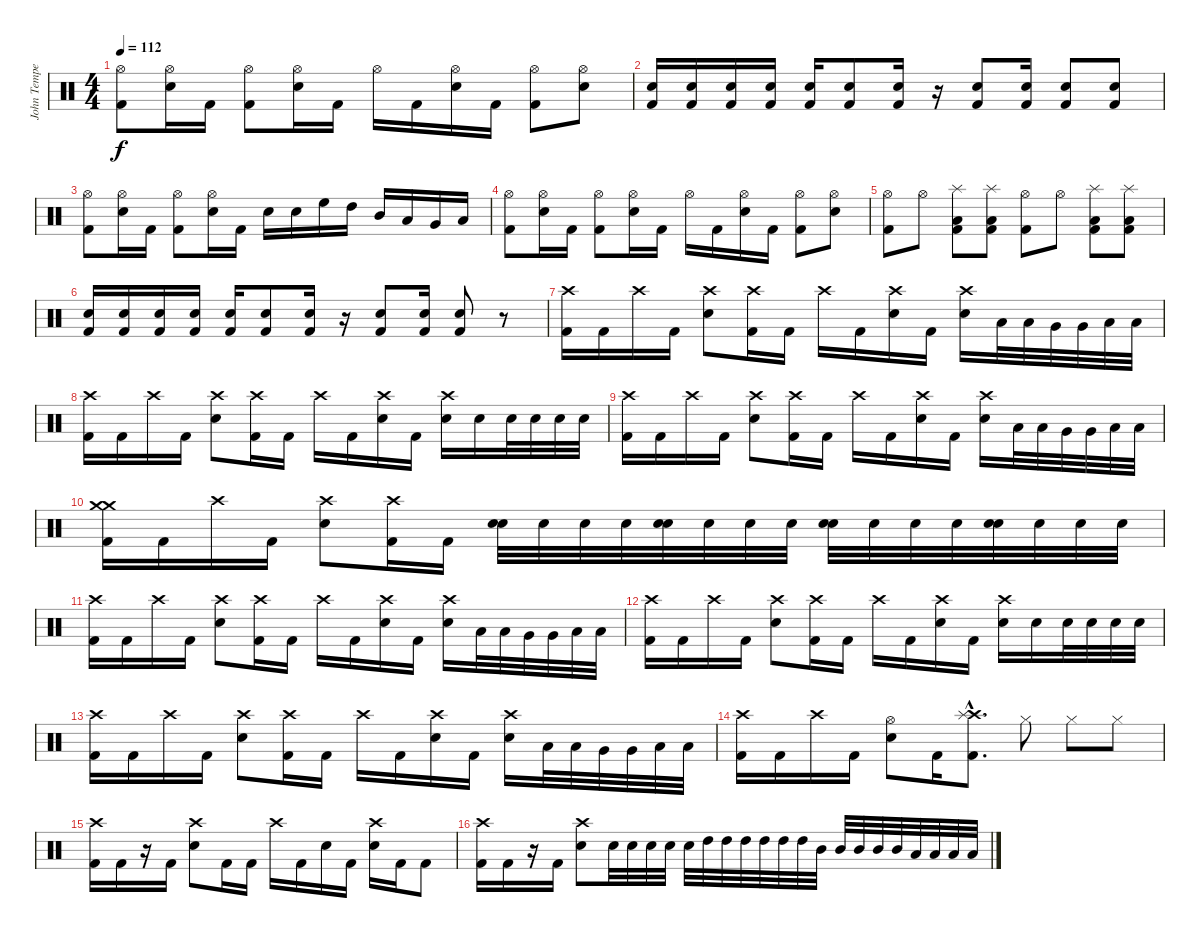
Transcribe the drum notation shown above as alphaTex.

\track ("John Tempesta" "John Tempe") {instrument percussion}
\staff {score}
\articulation defaults
\ts (4 4)
\tempo 112
\clef neutral
\ks c
("Hi-Hat (open)" "Kick (hit) 2").8{dy f} ("Hi-Hat (open)" "Electric Snare (hit)").16 "Kick (hit) 2".16 ("Hi-Hat (open)" "Kick (hit) 2").8 ("Hi-Hat (open)" "Electric Snare (hit)").16 "Kick (hit) 2".16 "Hi-Hat (open)".16 "Kick (hit) 2".16 ("Hi-Hat (open)" "Electric Snare (hit)").16 "Kick (hit) 2".16 ("Hi-Hat (open)" "Kick (hit) 2").8 ("Hi-Hat (open)" "Electric Snare (hit)").8 |
("Electric Snare (hit)" "Kick (hit) 2").16 ("Electric Snare (hit)" "Kick (hit) 2").16 ("Electric Snare (hit)" "Kick (hit) 2").16 ("Electric Snare (hit)" "Kick (hit) 2").16 ("Electric Snare (hit)" "Kick (hit) 2").16 ("Electric Snare (hit)" "Kick (hit) 2").8 ("Electric Snare (hit)" "Kick (hit) 2").16 r.16 ("Electric Snare (hit)" "Kick (hit) 2").8 ("Electric Snare (hit)" "Kick (hit) 2").16 ("Electric Snare (hit)" "Kick (hit) 2").8 ("Electric Snare (hit)" "Kick (hit) 2").8 |
("Hi-Hat (open)" "Kick (hit) 2").8 ("Hi-Hat (open)" "Electric Snare (hit)").16 "Kick (hit) 2".16 ("Hi-Hat (open)" "Kick (hit) 2").8 ("Hi-Hat (open)" "Electric Snare (hit)").16 "Kick (hit) 2".16 "Electric Snare (hit)".16 "Electric Snare (hit)".16 "High Floor Tom (hit)".16 "High Tom (hit)".16 "Mid Tom (hit)".16 "Low Tom (hit)".16 "Very Low Tom (hit)".16 "Low Floor Tom (hit)".16 |
("Hi-Hat (open)" "Kick (hit) 2").8 ("Hi-Hat (open)" "Electric Snare (hit)").16 "Kick (hit) 2".16 ("Hi-Hat (open)" "Kick (hit) 2").8 ("Hi-Hat (open)" "Electric Snare (hit)").16 "Kick (hit) 2".16 "Hi-Hat (open)".16 "Kick (hit) 2".16 ("Hi-Hat (open)" "Electric Snare (hit)").16 "Kick (hit) 2".16 ("Hi-Hat (open)" "Kick (hit) 2").8 ("Hi-Hat (open)" "Electric Snare (hit)").8 |
("Hi-Hat (open)" "Kick (hit) 2").8 "Hi-Hat (open)".8 ("Splash (hit)" "Low Floor Tom (hit)" "Kick (hit) 2").8 ("Splash (hit)" "Low Floor Tom (hit)" "Kick (hit) 2").8 ("Hi-Hat (open)" "Kick (hit) 2").8 "Hi-Hat (open)".8 ("Splash (hit)" "Low Floor Tom (hit)" "Kick (hit) 2").8 ("Splash (hit)" "Low Floor Tom (hit)" "Kick (hit) 2").8 |
("Electric Snare (hit)" "Kick (hit) 2").16 ("Electric Snare (hit)" "Kick (hit) 2").16 ("Electric Snare (hit)" "Kick (hit) 2").16 ("Electric Snare (hit)" "Kick (hit) 2").16 ("Electric Snare (hit)" "Kick (hit) 2").16 ("Electric Snare (hit)" "Kick (hit) 2").8 ("Electric Snare (hit)" "Kick (hit) 2").16 r.16 ("Electric Snare (hit)" "Kick (hit) 2").8 ("Electric Snare (hit)" "Kick (hit) 2").16 ("Electric Snare (hit)" "Kick (hit) 2").8 r.8 |
("Crash high (hit)" "Kick (hit) 2").16 "Kick (hit) 2".16 "Crash high (hit)".16 "Kick (hit) 2".16 ("Crash high (hit)" "Electric Snare (hit)").8 ("Crash high (hit)" "Kick (hit) 2").16 "Kick (hit) 2".16 "Crash high (hit)".16 "Kick (hit) 2".16 ("Crash high (hit)" "Electric Snare (hit)").16 "Kick (hit) 2".16 ("Crash high (hit)" "Electric Snare (hit)").16 "Low Tom (hit)".32 "Low Tom (hit)".32 "Very Low Tom (hit)".32 "Very Low Tom (hit)".32 "Low Floor Tom (hit)".32 "Low Floor Tom (hit)".32 |
("Crash high (hit)" "Kick (hit) 2").16 "Kick (hit) 2".16 "Crash high (hit)".16 "Kick (hit) 2".16 ("Crash high (hit)" "Electric Snare (hit)").8 ("Crash high (hit)" "Kick (hit) 2").16 "Kick (hit) 2".16 "Crash high (hit)".16 "Kick (hit) 2".16 ("Crash high (hit)" "Electric Snare (hit)").16 "Kick (hit) 2".16 ("Crash high (hit)" "Electric Snare (hit)").16 "Electric Snare (hit)".16 "Electric Snare (hit)".32 "Electric Snare (hit)".32 "Electric Snare (hit)".32 "Electric Snare (hit)".32 |
("Crash high (hit)" "Kick (hit) 2").16 "Kick (hit) 2".16 "Crash high (hit)".16 "Kick (hit) 2".16 ("Crash high (hit)" "Electric Snare (hit)").8 ("Crash high (hit)" "Kick (hit) 2").16 "Kick (hit) 2".16 "Crash high (hit)".16 "Kick (hit) 2".16 ("Crash high (hit)" "Electric Snare (hit)").16 "Kick (hit) 2".16 ("Crash high (hit)" "Electric Snare (hit)").16 "Low Tom (hit)".32 "Low Tom (hit)".32 "Very Low Tom (hit)".32 "Very Low Tom (hit)".32 "Low Floor Tom (hit)".32 "Low Floor Tom (hit)".32 |
("Crash medium (hit)" "Crash medium (hit)" "Kick (hit) 2").16 "Kick (hit) 2".16 "Crash high (hit)".16 "Kick (hit) 2".16 ("Crash high (hit)" "Electric Snare (hit)").8 ("Crash high (hit)" "Kick (hit) 2").16 "Kick (hit) 2".16 ("Electric Snare (hit)" "Electric Snare (hit)").32 "Electric Snare (hit)".32 "Electric Snare (hit)".32 "Electric Snare (hit)".32 ("Electric Snare (hit)" "Electric Snare (hit)").32 "Electric Snare (hit)".32 "Electric Snare (hit)".32 "Electric Snare (hit)".32 ("Electric Snare (hit)" "Electric Snare (hit)").32 "Electric Snare (hit)".32 "Electric Snare (hit)".32 "Electric Snare (hit)".32 ("Electric Snare (hit)" "Electric Snare (hit)").32 "Electric Snare (hit)".32 "Electric Snare (hit)".32 "Electric Snare (hit)".32 |
("Crash high (hit)" "Kick (hit) 2").16 "Kick (hit) 2".16 "Crash high (hit)".16 "Kick (hit) 2".16 ("Crash high (hit)" "Electric Snare (hit)").8 ("Crash high (hit)" "Kick (hit) 2").16 "Kick (hit) 2".16 "Crash high (hit)".16 "Kick (hit) 2".16 ("Crash high (hit)" "Electric Snare (hit)").16 "Kick (hit) 2".16 ("Crash high (hit)" "Electric Snare (hit)").16 "Low Tom (hit)".32 "Low Tom (hit)".32 "Very Low Tom (hit)".32 "Very Low Tom (hit)".32 "Low Floor Tom (hit)".32 "Low Floor Tom (hit)".32 |
("Crash high (hit)" "Kick (hit) 2").16 "Kick (hit) 2".16 "Crash high (hit)".16 "Kick (hit) 2".16 ("Crash high (hit)" "Electric Snare (hit)").8 ("Crash high (hit)" "Kick (hit) 2").16 "Kick (hit) 2".16 "Crash high (hit)".16 "Kick (hit) 2".16 ("Crash high (hit)" "Electric Snare (hit)").16 "Kick (hit) 2".16 ("Crash high (hit)" "Electric Snare (hit)").16 "Electric Snare (hit)".16 "Electric Snare (hit)".32 "Electric Snare (hit)".32 "Electric Snare (hit)".32 "Electric Snare (hit)".32 |
("Crash high (hit)" "Kick (hit) 2").16 "Kick (hit) 2".16 "Crash high (hit)".16 "Kick (hit) 2".16 ("Crash high (hit)" "Electric Snare (hit)").8 ("Crash high (hit)" "Kick (hit) 2").16 "Kick (hit) 2".16 "Crash high (hit)".16 "Kick (hit) 2".16 ("Crash high (hit)" "Electric Snare (hit)").16 "Kick (hit) 2".16 ("Crash high (hit)" "Electric Snare (hit)").16 "Low Tom (hit)".32 "Low Tom (hit)".32 "Very Low Tom (hit)".32 "Very Low Tom (hit)".32 "Low Floor Tom (hit)".32 "Low Floor Tom (hit)".32 |
("Crash high (hit)" "Kick (hit) 2").16 "Kick (hit) 2".16 "Crash high (hit)".16 "Kick (hit) 2".16 ("Hi-Hat (open)" "Electric Snare (hit)").8 "Kick (hit) 2".16 ("Crash high (hit)"{hac} "Splash (hit)"{hac} "Kick (hit) 2"{hac}).8{d} "Hi-Hat (closed)".8 "Hi-Hat (closed)".8 "Hi-Hat (closed)".8 |
("Crash high (hit)" "Kick (hit) 2").16 "Kick (hit) 2".16 r.16 "Kick (hit) 2".16 ("Crash high (hit)" "Electric Snare (hit)").8 "Kick (hit) 2".16 "Kick (hit) 2".16 "Crash high (hit)".16 "Kick (hit) 2".16 "Electric Snare (hit)".16 "Kick (hit) 2".16 ("Crash high (hit)" "Electric Snare (hit)").16 "Kick (hit) 2".16 "Kick (hit) 2".8 |
("Crash high (hit)" "Kick (hit) 2").16 "Kick (hit) 2".16 r.16 "Kick (hit) 2".16 ("Crash high (hit)" "Electric Snare (hit)").8 "Electric Snare (hit)".32 "Electric Snare (hit)".32 "Electric Snare (hit)".32 "Electric Snare (hit)".32 "Electric Snare (hit)".32 "High Tom (hit)".32 "High Tom (hit)".32 "High Tom (hit)".32 "High Tom (hit)".32 "High Tom (hit)".32 "High Tom (hit)".32 "Mid Tom (hit)".32 "Mid Tom (hit)".32 "Mid Tom (hit)".32 "Mid Tom (hit)".32 "Mid Tom (hit)".32 "Low Tom (hit)".32 "Low Tom (hit)".32 "Low Tom (hit)".32 "Low Tom (hit)".32
